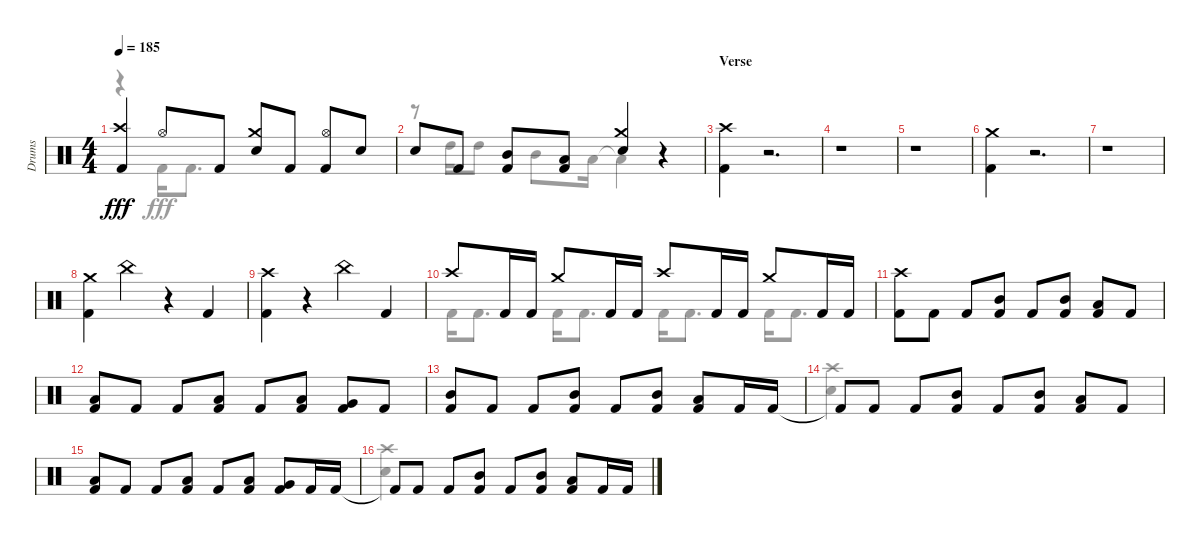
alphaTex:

\track ("Drums" "Drums") {instrument percussion}
\staff {score}
\articulation defaults
\voice
\ts (4 4)
\tempo 185
\clef neutral
\ks aminor
("Kick (hit) 2" "Crash high (hit)").4{dy fff} "Hi-Hat (open)".8 "Kick (hit) 2".8 ("Crash medium (hit)" "Snare (hit) 2").8 "Kick (hit) 2".8 ("Hi-Hat (open)" "Kick (hit) 2").8 "Snare (hit) 2".8 |
"Snare (hit) 2".8 "Kick (hit) 2".8 ("Mid Tom (hit)" "Kick (hit) 2").8 ("Kick (hit) 2" "Low Tom (hit)").8 ("Snare (hit) 2" "Crash medium (hit)").4 r.4 |
\section ("" "Verse")
("Kick (hit) 2" "Crash high (hit)").4 r.2{d} |
r.1 |
r.1 |
("Kick (hit) 2" "Crash medium (hit)").4 r.2{d} |
r.1 |
("Crash medium (hit)" "Kick (hit) 2").4 "China (hit)".4 r.4 "Kick (hit) 2".4 |
("Kick (hit) 2" "Crash high (hit)").4 r.4 "China (hit)".4 "Kick (hit) 2".4 |
"Crash high (hit)".8 "Kick (hit) 2".16 "Kick (hit) 2".16 "Crash medium (hit)".8 "Kick (hit) 2".16 "Kick (hit) 2".16 "Crash high (hit)".8 "Kick (hit) 2".16 "Kick (hit) 2".16 "Crash medium (hit)".8 "Kick (hit) 2".16 "Kick (hit) 2".16 |
("Crash high (hit)" "Kick (hit) 2").8 "Kick (hit) 2".8 "Kick (hit) 2".8 ("Kick (hit) 2" "Mid Tom (hit)").8 "Kick (hit) 2".8 ("Kick (hit) 2" "Mid Tom (hit)").8 ("Low Tom (hit)" "Kick (hit) 2").8 "Kick (hit) 2".8 |
("Kick (hit) 2" "Low Tom (hit)").8 "Kick (hit) 2".8 "Kick (hit) 2".8 ("Low Tom (hit)" "Kick (hit) 2").8 "Kick (hit) 2".8 ("Low Tom (hit)" "Kick (hit) 2").8 ("Kick (hit) 2" "Very Low Tom (hit)").8 "Kick (hit) 2".8 |
("Mid Tom (hit)" "Kick (hit) 2").8 "Kick (hit) 2".8 "Kick (hit) 2".8 ("Mid Tom (hit)" "Kick (hit) 2").8 "Kick (hit) 2".8 ("Kick (hit) 2" "Mid Tom (hit)").8 ("Low Tom (hit)" "Kick (hit) 2").8 "Kick (hit) 2".16 "Kick (hit) 2".16 |
"Kick (hit) 2"{t}.8 "Kick (hit) 2".8 "Kick (hit) 2".8 ("Mid Tom (hit)" "Kick (hit) 2").8 "Kick (hit) 2".8 ("Kick (hit) 2" "Mid Tom (hit)").8 ("Kick (hit) 2" "Low Tom (hit)").8 "Kick (hit) 2".8 |
("Kick (hit) 2" "Low Tom (hit)").8 "Kick (hit) 2".8 "Kick (hit) 2".8 ("Kick (hit) 2" "Low Tom (hit)").8 "Kick (hit) 2".8 ("Low Tom (hit)" "Kick (hit) 2").8 ("Kick (hit) 2" "Very Low Tom (hit)").8 "Kick (hit) 2".16 "Kick (hit) 2".16 |
"Kick (hit) 2"{t}.8 "Kick (hit) 2".8 "Kick (hit) 2".8 ("Kick (hit) 2" "Mid Tom (hit)").8 "Kick (hit) 2".8 ("Mid Tom (hit)" "Kick (hit) 2").8 ("Low Tom (hit)" "Kick (hit) 2").8 "Kick (hit) 2".16 "Kick (hit) 2".16
\voice
\clef neutral
\ottava regular
\simile none
\ks aminor
r.4{dy fff} "Kick (hit) 2".16 "Kick (hit) 2".8{d} |
r.8 "High Tom (hit)".16 "High Tom (hit)".8 "Mid Tom (hit)".8 "Low Tom (hit)".16 "Low Tom (hit)"{t}.4 |
|
|
|
|
|
|
|
"Kick (hit) 2".16 "Kick (hit) 2".8{d} "Kick (hit) 2".16 "Kick (hit) 2".8{d} "Kick (hit) 2".16 "Kick (hit) 2".8{d} "Kick (hit) 2".16 "Kick (hit) 2".8{d} |
|
|
|
("Snare (hit) 2" "Crash high (hit)").4 |
|
("Snare (hit) 2" "Crash high (hit)").4
